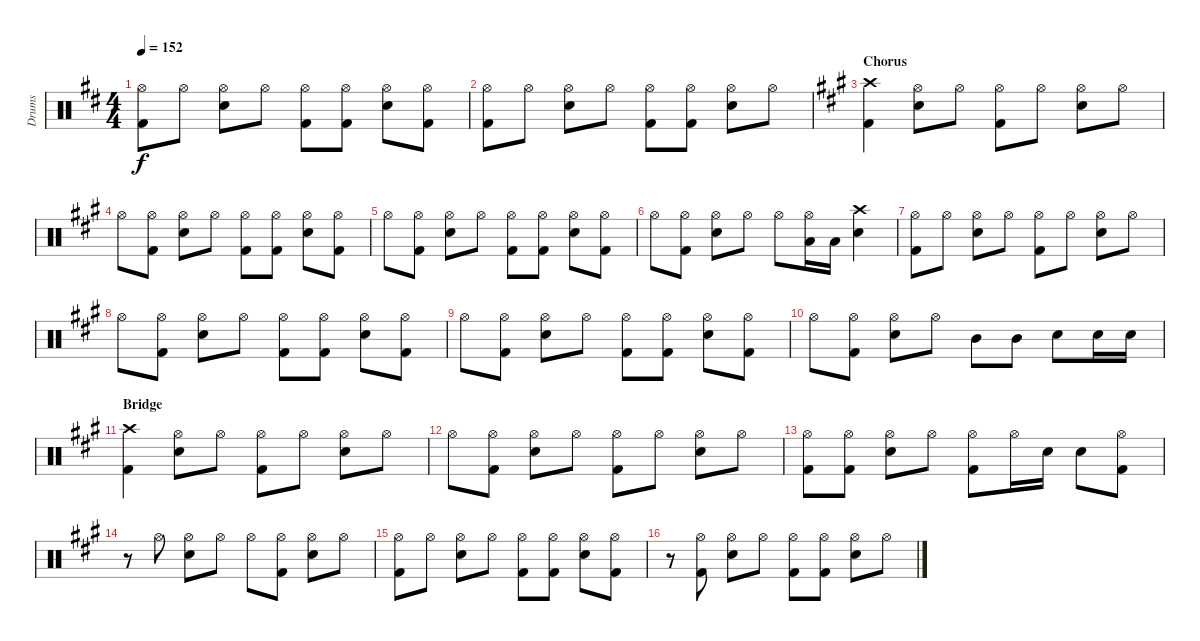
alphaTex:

\track ("Drums" "Drums") {instrument percussion}
\staff {score}
\articulation defaults
\ts (4 4)
\tempo 152
\clef neutral
\ks bminor
("Kick (hit) 2" "Hi-Hat (open)").8{dy f} "Hi-Hat (open)".8 ("Snare (hit) 2" "Hi-Hat (open)").8 "Hi-Hat (open)".8 ("Kick (hit) 2" "Hi-Hat (open)").8 ("Kick (hit) 2" "Hi-Hat (open)").8 ("Snare (hit) 2" "Hi-Hat (open)").8 ("Kick (hit) 2" "Hi-Hat (open)").8 |
("Kick (hit) 2" "Hi-Hat (open)").8 "Hi-Hat (open)".8 ("Snare (hit) 2" "Hi-Hat (open)").8 "Hi-Hat (open)".8 ("Kick (hit) 2" "Hi-Hat (open)").8 ("Kick (hit) 2" "Hi-Hat (open)").8 ("Snare (hit) 2" "Hi-Hat (open)").8 "Hi-Hat (open)".8 |
\section ("" "Chorus")
\ks f#minor
("Kick (hit) 2" "Crash high (hit)").4 ("Snare (hit) 2" "Hi-Hat (open)").8 "Hi-Hat (open)".8 ("Kick (hit) 2" "Hi-Hat (open)").8 "Hi-Hat (open)".8 ("Snare (hit) 2" "Hi-Hat (open)").8 "Hi-Hat (open)".8 |
"Hi-Hat (open)".8 ("Kick (hit) 2" "Hi-Hat (open)").8 ("Snare (hit) 2" "Hi-Hat (open)").8 "Hi-Hat (open)".8 ("Kick (hit) 2" "Hi-Hat (open)").8 ("Kick (hit) 2" "Hi-Hat (open)").8 ("Snare (hit) 2" "Hi-Hat (open)").8 ("Kick (hit) 2" "Hi-Hat (open)").8 |
"Hi-Hat (open)".8 ("Kick (hit) 2" "Hi-Hat (open)").8 ("Snare (hit) 2" "Hi-Hat (open)").8 "Hi-Hat (open)".8 ("Kick (hit) 2" "Hi-Hat (open)").8 ("Kick (hit) 2" "Hi-Hat (open)").8 ("Snare (hit) 2" "Hi-Hat (open)").8 ("Kick (hit) 2" "Hi-Hat (open)").8 |
"Hi-Hat (open)".8 ("Kick (hit) 2" "Hi-Hat (open)").8 ("Snare (hit) 2" "Hi-Hat (open)").8 "Hi-Hat (open)".8 "Hi-Hat (open)".8 ("Hi-Hat (open)" "Low Tom (hit)").16 "Low Tom (hit)".16 ("Snare (hit) 2" "Crash high (hit)").4 |
("Kick (hit) 2" "Hi-Hat (open)").8 "Hi-Hat (open)".8 ("Snare (hit) 2" "Hi-Hat (open)").8 "Hi-Hat (open)".8 ("Kick (hit) 2" "Hi-Hat (open)").8 "Hi-Hat (open)".8 ("Snare (hit) 2" "Hi-Hat (open)").8 "Hi-Hat (open)".8 |
"Hi-Hat (open)".8 ("Kick (hit) 2" "Hi-Hat (open)").8 ("Snare (hit) 2" "Hi-Hat (open)").8 "Hi-Hat (open)".8 ("Kick (hit) 2" "Hi-Hat (open)").8 ("Kick (hit) 2" "Hi-Hat (open)").8 ("Snare (hit) 2" "Hi-Hat (open)").8 ("Kick (hit) 2" "Hi-Hat (open)").8 |
"Hi-Hat (open)".8 ("Kick (hit) 2" "Hi-Hat (open)").8 ("Snare (hit) 2" "Hi-Hat (open)").8 "Hi-Hat (open)".8 ("Kick (hit) 2" "Hi-Hat (open)").8 ("Kick (hit) 2" "Hi-Hat (open)").8 ("Snare (hit) 2" "Hi-Hat (open)").8 ("Kick (hit) 2" "Hi-Hat (open)").8 |
"Hi-Hat (open)".8 ("Kick (hit) 2" "Hi-Hat (open)").8 ("Snare (hit) 2" "Hi-Hat (open)").8 "Hi-Hat (open)".8 "Mid Tom (hit)".8 "Mid Tom (hit)".8 "Snare (hit) 2".8 "Snare (hit) 2".16 "Snare (hit) 2".16 |
\section ("" "Bridge")
("Kick (hit) 2" "Crash high (hit)").4 ("Snare (hit) 2" "Hi-Hat (open)").8 "Hi-Hat (open)".8 ("Kick (hit) 2" "Hi-Hat (open)").8 "Hi-Hat (open)".8 ("Snare (hit) 2" "Hi-Hat (open)").8 "Hi-Hat (open)".8 |
"Hi-Hat (open)".8 ("Kick (hit) 2" "Hi-Hat (open)").8 ("Snare (hit) 2" "Hi-Hat (open)").8 "Hi-Hat (open)".8 ("Kick (hit) 2" "Hi-Hat (open)").8 "Hi-Hat (open)".8 ("Snare (hit) 2" "Hi-Hat (open)").8 "Hi-Hat (open)".8 |
("Kick (hit) 2" "Hi-Hat (open)").8 ("Kick (hit) 2" "Hi-Hat (open)").8 ("Snare (hit) 2" "Hi-Hat (open)").8 "Hi-Hat (open)".8 ("Kick (hit) 2" "Hi-Hat (open)").8 "Hi-Hat (open)".16 "Snare (hit) 2".16 "Snare (hit) 2".8 ("Kick (hit) 2" "Hi-Hat (open)").8 |
r.8 "Hi-Hat (open)".8 ("Snare (hit) 2" "Hi-Hat (open)").8 "Hi-Hat (open)".8 "Hi-Hat (open)".8 ("Kick (hit) 2" "Hi-Hat (open)").8 ("Snare (hit) 2" "Hi-Hat (open)").8 "Hi-Hat (open)".8 |
("Kick (hit) 2" "Hi-Hat (open)").8 "Hi-Hat (open)".8 ("Snare (hit) 2" "Hi-Hat (open)").8 "Hi-Hat (open)".8 ("Kick (hit) 2" "Hi-Hat (open)").8 ("Kick (hit) 2" "Hi-Hat (open)").8 ("Snare (hit) 2" "Hi-Hat (open)").8 ("Kick (hit) 2" "Hi-Hat (open)").8 |
r.8 ("Kick (hit) 2" "Hi-Hat (open)").8 ("Snare (hit) 2" "Hi-Hat (open)").8 "Hi-Hat (open)".8 ("Kick (hit) 2" "Hi-Hat (open)").8 ("Kick (hit) 2" "Hi-Hat (open)").8 ("Snare (hit) 2" "Hi-Hat (open)").8 "Hi-Hat (open)".8
